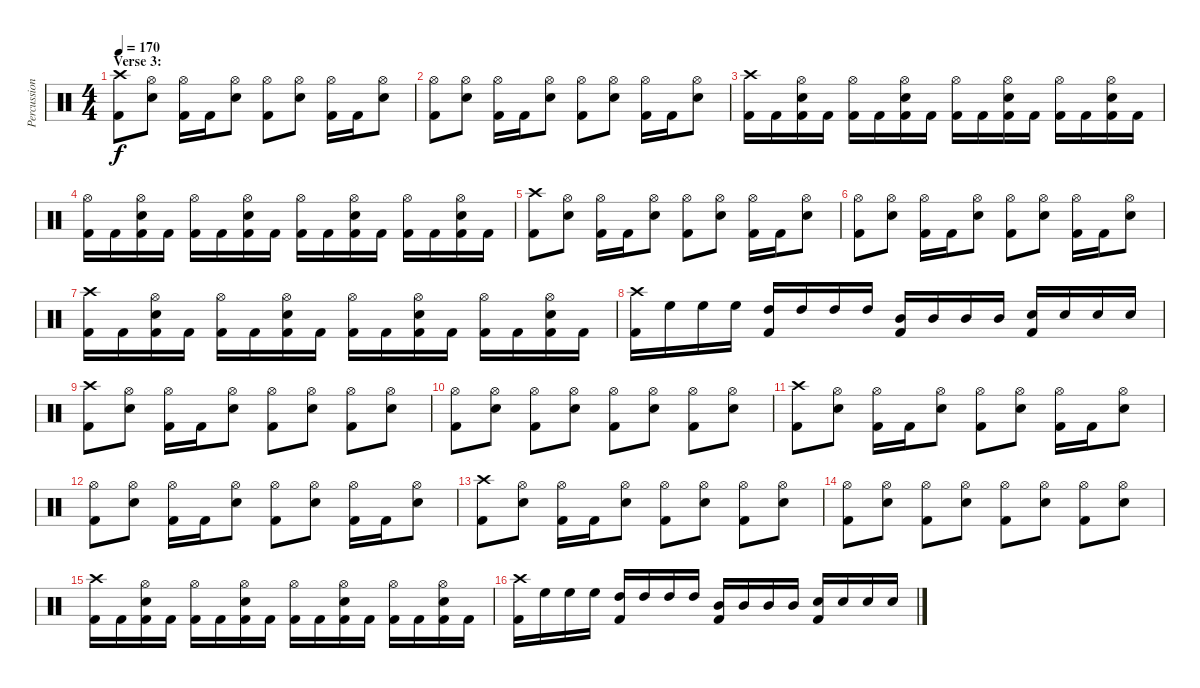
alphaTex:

\track ("Percussion" "Percussion") {instrument percussion}
\staff {score}
\articulation defaults
\ts (4 4)
\section ("" "Verse 3:")
\tempo 170
\clef neutral
\ks c
("Crash high (hit)" "Kick (hit) 2").8{dy f} ("Hi-Hat (open)" "Electric Snare (hit)").8 ("Hi-Hat (open)" "Kick (hit) 2").16 "Kick (hit) 2".16 ("Hi-Hat (open)" "Electric Snare (hit)").8 ("Hi-Hat (open)" "Kick (hit) 2").8 ("Hi-Hat (open)" "Electric Snare (hit)").8 ("Hi-Hat (open)" "Kick (hit) 2").16 "Kick (hit) 2".16 ("Hi-Hat (open)" "Electric Snare (hit)").8 |
("Hi-Hat (open)" "Kick (hit) 2").8 ("Hi-Hat (open)" "Electric Snare (hit)").8 ("Hi-Hat (open)" "Kick (hit) 2").16 "Kick (hit) 2".16 ("Hi-Hat (open)" "Electric Snare (hit)").8 ("Hi-Hat (open)" "Kick (hit) 2").8 ("Hi-Hat (open)" "Electric Snare (hit)").8 ("Hi-Hat (open)" "Kick (hit) 2").16 "Kick (hit) 2".16 ("Hi-Hat (open)" "Electric Snare (hit)").8 |
("Crash high (hit)" "Kick (hit) 2").16 "Kick (hit) 2".16 ("Hi-Hat (open)" "Electric Snare (hit)" "Kick (hit) 2").16 "Kick (hit) 2".16 ("Hi-Hat (open)" "Kick (hit) 2").16 "Kick (hit) 2".16 ("Hi-Hat (open)" "Electric Snare (hit)" "Kick (hit) 2").16 "Kick (hit) 2".16 ("Hi-Hat (open)" "Kick (hit) 2").16 "Kick (hit) 2".16 ("Hi-Hat (open)" "Electric Snare (hit)" "Kick (hit) 2").16 "Kick (hit) 2".16 ("Hi-Hat (open)" "Kick (hit) 2").16 "Kick (hit) 2".16 ("Hi-Hat (open)" "Electric Snare (hit)" "Kick (hit) 2").16 "Kick (hit) 2".16 |
("Hi-Hat (open)" "Kick (hit) 2").16 "Kick (hit) 2".16 ("Hi-Hat (open)" "Electric Snare (hit)" "Kick (hit) 2").16 "Kick (hit) 2".16 ("Hi-Hat (open)" "Kick (hit) 2").16 "Kick (hit) 2".16 ("Hi-Hat (open)" "Electric Snare (hit)" "Kick (hit) 2").16 "Kick (hit) 2".16 ("Hi-Hat (open)" "Kick (hit) 2").16 "Kick (hit) 2".16 ("Hi-Hat (open)" "Electric Snare (hit)" "Kick (hit) 2").16 "Kick (hit) 2".16 ("Hi-Hat (open)" "Kick (hit) 2").16 "Kick (hit) 2".16 ("Hi-Hat (open)" "Electric Snare (hit)" "Kick (hit) 2").16 "Kick (hit) 2".16 |
("Crash high (hit)" "Kick (hit) 2").8 ("Hi-Hat (open)" "Electric Snare (hit)").8 ("Hi-Hat (open)" "Kick (hit) 2").16 "Kick (hit) 2".16 ("Hi-Hat (open)" "Electric Snare (hit)").8 ("Hi-Hat (open)" "Kick (hit) 2").8 ("Hi-Hat (open)" "Electric Snare (hit)").8 ("Hi-Hat (open)" "Kick (hit) 2").16 "Kick (hit) 2".16 ("Hi-Hat (open)" "Electric Snare (hit)").8 |
("Hi-Hat (open)" "Kick (hit) 2").8 ("Hi-Hat (open)" "Electric Snare (hit)").8 ("Hi-Hat (open)" "Kick (hit) 2").16 "Kick (hit) 2".16 ("Hi-Hat (open)" "Electric Snare (hit)").8 ("Hi-Hat (open)" "Kick (hit) 2").8 ("Hi-Hat (open)" "Electric Snare (hit)").8 ("Hi-Hat (open)" "Kick (hit) 2").16 "Kick (hit) 2".16 ("Hi-Hat (open)" "Electric Snare (hit)").8 |
("Crash high (hit)" "Kick (hit) 2").16 "Kick (hit) 2".16 ("Hi-Hat (open)" "Electric Snare (hit)" "Kick (hit) 2").16 "Kick (hit) 2".16 ("Hi-Hat (open)" "Kick (hit) 2").16 "Kick (hit) 2".16 ("Hi-Hat (open)" "Electric Snare (hit)" "Kick (hit) 2").16 "Kick (hit) 2".16 ("Hi-Hat (open)" "Kick (hit) 2").16 "Kick (hit) 2".16 ("Hi-Hat (open)" "Electric Snare (hit)" "Kick (hit) 2").16 "Kick (hit) 2".16 ("Hi-Hat (open)" "Kick (hit) 2").16 "Kick (hit) 2".16 ("Hi-Hat (open)" "Electric Snare (hit)" "Kick (hit) 2").16 "Kick (hit) 2".16 |
("Crash high (hit)" "Kick (hit) 2").16 "High Floor Tom (hit)".16 "High Floor Tom (hit)".16 "High Floor Tom (hit)".16 ("High Tom (hit)" "Kick (hit) 2").16 "High Tom (hit)".16 "High Tom (hit)".16 "High Tom (hit)".16 ("Mid Tom (hit)" "Kick (hit) 2").16 "Mid Tom (hit)".16 "Mid Tom (hit)".16 "Mid Tom (hit)".16 ("Electric Snare (hit)" "Kick (hit) 2").16 "Electric Snare (hit)".16 "Electric Snare (hit)".16 "Electric Snare (hit)".16 |
("Crash high (hit)" "Kick (hit) 2").8 ("Hi-Hat (open)" "Electric Snare (hit)").8 ("Hi-Hat (open)" "Kick (hit) 2").16 "Kick (hit) 2".16 ("Hi-Hat (open)" "Electric Snare (hit)").8 ("Hi-Hat (open)" "Kick (hit) 2").8 ("Hi-Hat (open)" "Electric Snare (hit)").8 ("Hi-Hat (open)" "Kick (hit) 2").8 ("Hi-Hat (open)" "Electric Snare (hit)").8 |
("Hi-Hat (open)" "Kick (hit) 2").8 ("Hi-Hat (open)" "Electric Snare (hit)").8 ("Hi-Hat (open)" "Kick (hit) 2").8 ("Hi-Hat (open)" "Electric Snare (hit)").8 ("Hi-Hat (open)" "Kick (hit) 2").8 ("Hi-Hat (open)" "Electric Snare (hit)").8 ("Hi-Hat (open)" "Kick (hit) 2").8 ("Hi-Hat (open)" "Electric Snare (hit)").8 |
("Crash high (hit)" "Kick (hit) 2").8 ("Hi-Hat (open)" "Electric Snare (hit)").8 ("Hi-Hat (open)" "Kick (hit) 2").16 "Kick (hit) 2".16 ("Hi-Hat (open)" "Electric Snare (hit)").8 ("Hi-Hat (open)" "Kick (hit) 2").8 ("Hi-Hat (open)" "Electric Snare (hit)").8 ("Hi-Hat (open)" "Kick (hit) 2").16 "Kick (hit) 2".16 ("Hi-Hat (open)" "Electric Snare (hit)").8 |
("Hi-Hat (open)" "Kick (hit) 2").8 ("Hi-Hat (open)" "Electric Snare (hit)").8 ("Hi-Hat (open)" "Kick (hit) 2").16 "Kick (hit) 2".16 ("Hi-Hat (open)" "Electric Snare (hit)").8 ("Hi-Hat (open)" "Kick (hit) 2").8 ("Hi-Hat (open)" "Electric Snare (hit)").8 ("Hi-Hat (open)" "Kick (hit) 2").16 "Kick (hit) 2".16 ("Hi-Hat (open)" "Electric Snare (hit)").8 |
("Crash high (hit)" "Kick (hit) 2").8 ("Hi-Hat (open)" "Electric Snare (hit)").8 ("Hi-Hat (open)" "Kick (hit) 2").16 "Kick (hit) 2".16 ("Hi-Hat (open)" "Electric Snare (hit)").8 ("Hi-Hat (open)" "Kick (hit) 2").8 ("Hi-Hat (open)" "Electric Snare (hit)").8 ("Hi-Hat (open)" "Kick (hit) 2").8 ("Hi-Hat (open)" "Electric Snare (hit)").8 |
("Hi-Hat (open)" "Kick (hit) 2").8 ("Hi-Hat (open)" "Electric Snare (hit)").8 ("Hi-Hat (open)" "Kick (hit) 2").8 ("Hi-Hat (open)" "Electric Snare (hit)").8 ("Hi-Hat (open)" "Kick (hit) 2").8 ("Hi-Hat (open)" "Electric Snare (hit)").8 ("Hi-Hat (open)" "Kick (hit) 2").8 ("Hi-Hat (open)" "Electric Snare (hit)").8 |
("Crash high (hit)" "Kick (hit) 2").16 "Kick (hit) 2".16 ("Hi-Hat (open)" "Electric Snare (hit)" "Kick (hit) 2").16 "Kick (hit) 2".16 ("Hi-Hat (open)" "Kick (hit) 2").16 "Kick (hit) 2".16 ("Hi-Hat (open)" "Electric Snare (hit)" "Kick (hit) 2").16 "Kick (hit) 2".16 ("Hi-Hat (open)" "Kick (hit) 2").16 "Kick (hit) 2".16 ("Hi-Hat (open)" "Electric Snare (hit)" "Kick (hit) 2").16 "Kick (hit) 2".16 ("Hi-Hat (open)" "Kick (hit) 2").16 "Kick (hit) 2".16 ("Hi-Hat (open)" "Electric Snare (hit)" "Kick (hit) 2").16 "Kick (hit) 2".16 |
("Crash high (hit)" "Kick (hit) 2").16 "High Floor Tom (hit)".16 "High Floor Tom (hit)".16 "High Floor Tom (hit)".16 ("High Tom (hit)" "Kick (hit) 2").16 "High Tom (hit)".16 "High Tom (hit)".16 "High Tom (hit)".16 ("Mid Tom (hit)" "Kick (hit) 2").16 "Mid Tom (hit)".16 "Mid Tom (hit)".16 "Mid Tom (hit)".16 ("Electric Snare (hit)" "Kick (hit) 2").16 "Electric Snare (hit)".16 "Electric Snare (hit)".16 "Electric Snare (hit)".16
